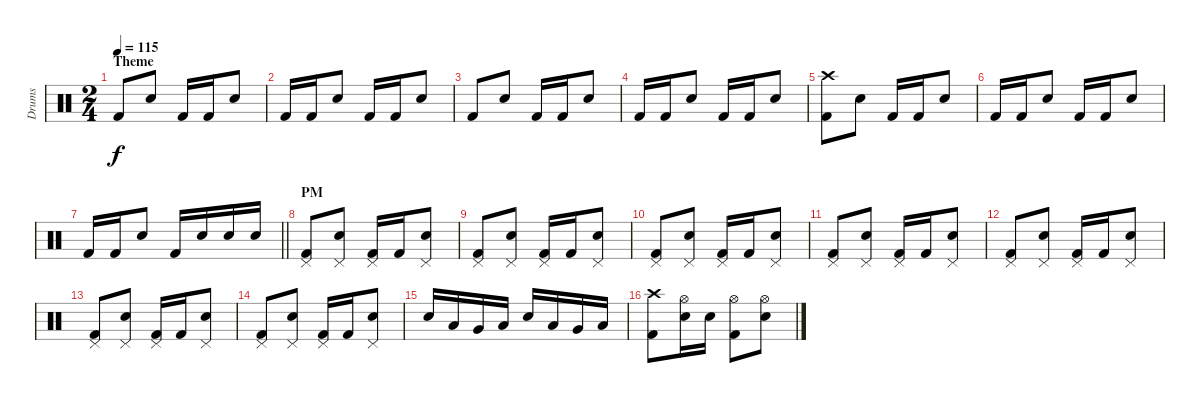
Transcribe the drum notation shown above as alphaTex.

\track ("Drums" "Drums") {instrument percussion}
\staff {score}
\articulation defaults
\ts (2 4)
\section ("" "Theme")
\tempo 115
\clef neutral
\ks c "Kick (hit) 2".8{dy f} "Electric Snare (hit)".8 "Kick (hit) 2".16 "Kick (hit) 2".16 "Electric Snare (hit)".8
|
"Kick (hit) 2".16 "Kick (hit) 2".16 "Electric Snare (hit)".8 "Kick (hit) 2".16 "Kick (hit) 2".16 "Electric Snare (hit)".8 |
"Kick (hit) 2".8 "Electric Snare (hit)".8 "Kick (hit) 2".16 "Kick (hit) 2".16 "Electric Snare (hit)".8 |
"Kick (hit) 2".16 "Kick (hit) 2".16 "Electric Snare (hit)".8 "Kick (hit) 2".16 "Kick (hit) 2".16 "Electric Snare (hit)".8 |
("Crash high (hit)" "Kick (hit) 2").8 "Electric Snare (hit)".8 "Kick (hit) 2".16 "Kick (hit) 2".16 "Electric Snare (hit)".8 |
"Kick (hit) 2".16 "Kick (hit) 2".16 "Electric Snare (hit)".8 "Kick (hit) 2".16 "Kick (hit) 2".16 "Electric Snare (hit)".8 |
\barLineRight lightlight "Kick (hit) 2".16 "Kick (hit) 2".16 "Electric Snare (hit)".8 "Kick (hit) 2".16 "Electric Snare (hit)".16 "Electric Snare (hit)".16 "Electric Snare (hit)".16
|
\section ("" "PM")
("Pedal Hi-Hat (hit)" "Kick (hit) 2").8 ("Pedal Hi-Hat (hit)" "Electric Snare (hit)").8 ("Pedal Hi-Hat (hit)" "Kick (hit) 2").16 "Kick (hit) 2".16 ("Pedal Hi-Hat (hit)" "Electric Snare (hit)").8 |
("Pedal Hi-Hat (hit)" "Kick (hit) 2").8 ("Pedal Hi-Hat (hit)" "Electric Snare (hit)").8 ("Pedal Hi-Hat (hit)" "Kick (hit) 2").16 "Kick (hit) 2".16 ("Pedal Hi-Hat (hit)" "Electric Snare (hit)").8 |
("Pedal Hi-Hat (hit)" "Kick (hit) 2").8 ("Pedal Hi-Hat (hit)" "Electric Snare (hit)").8 ("Pedal Hi-Hat (hit)" "Kick (hit) 2").16 "Kick (hit) 2".16 ("Pedal Hi-Hat (hit)" "Electric Snare (hit)").8 |
("Pedal Hi-Hat (hit)" "Kick (hit) 2").8 ("Pedal Hi-Hat (hit)" "Electric Snare (hit)").8 ("Pedal Hi-Hat (hit)" "Kick (hit) 2").16 "Kick (hit) 2".16 ("Pedal Hi-Hat (hit)" "Electric Snare (hit)").8 |
("Pedal Hi-Hat (hit)" "Kick (hit) 2").8 ("Pedal Hi-Hat (hit)" "Electric Snare (hit)").8 ("Pedal Hi-Hat (hit)" "Kick (hit) 2").16 "Kick (hit) 2".16 ("Pedal Hi-Hat (hit)" "Electric Snare (hit)").8 |
("Pedal Hi-Hat (hit)" "Kick (hit) 2").8 ("Pedal Hi-Hat (hit)" "Electric Snare (hit)").8 ("Pedal Hi-Hat (hit)" "Kick (hit) 2").16 "Kick (hit) 2".16 ("Pedal Hi-Hat (hit)" "Electric Snare (hit)").8 |
("Pedal Hi-Hat (hit)" "Kick (hit) 2").8 ("Pedal Hi-Hat (hit)" "Electric Snare (hit)").8 ("Pedal Hi-Hat (hit)" "Kick (hit) 2").16 "Kick (hit) 2".16 ("Pedal Hi-Hat (hit)" "Electric Snare (hit)").8 |
"Electric Snare (hit)".16 "Low Tom (hit)".16 "Very Low Tom (hit)".16 "Low Floor Tom (hit)".16 "Electric Snare (hit)".16 "Low Tom (hit)".16 "Very Low Tom (hit)".16 "Low Floor Tom (hit)".16 |
("Crash high (hit)" "Kick (hit) 2").8 ("Hi-Hat (open)" "Electric Snare (hit)").16 "Electric Snare (hit)".16 ("Hi-Hat (open)" "Kick (hit) 2").8 ("Hi-Hat (open)" "Electric Snare (hit)").8
